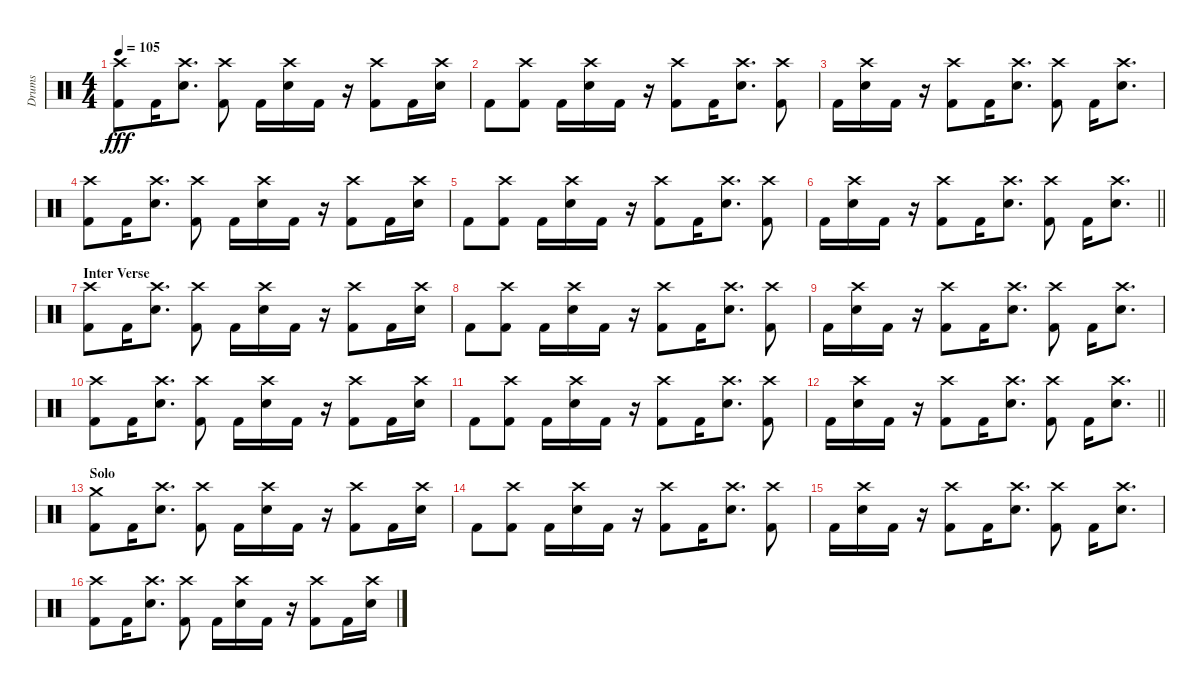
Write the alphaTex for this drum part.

\track ("Drums" "Drums") {instrument percussion}
\staff {score}
\articulation defaults
\ts (4 4)
\tempo 105
\clef neutral
\ks c
("Crash high (hit)" "Kick (hit) 2").8{dy fff} "Kick (hit) 2".16 ("Crash high (hit)" "Electric Snare (hit)").8{d} ("Crash high (hit)" "Kick (hit) 2").8 "Kick (hit) 2".16 ("Crash high (hit)" "Electric Snare (hit)").16 "Kick (hit) 2".16 r.16 ("Crash high (hit)" "Kick (hit) 2").8 "Kick (hit) 2".16 ("Crash high (hit)" "Electric Snare (hit)").16 |
"Kick (hit) 2".8 ("Crash high (hit)" "Kick (hit) 2").8 "Kick (hit) 2".16 ("Crash high (hit)" "Electric Snare (hit)").16 "Kick (hit) 2".16 r.16 ("Crash high (hit)" "Kick (hit) 2").8 "Kick (hit) 2".16 ("Crash high (hit)" "Electric Snare (hit)").8{d} ("Crash high (hit)" "Kick (hit) 2").8 |
"Kick (hit) 2".16 ("Crash high (hit)" "Electric Snare (hit)").16 "Kick (hit) 2".16 r.16 ("Crash high (hit)" "Kick (hit) 2").8 "Kick (hit) 2".16 ("Crash high (hit)" "Electric Snare (hit)").8{d} ("Crash high (hit)" "Kick (hit) 2").8 "Kick (hit) 2".16 ("Crash high (hit)" "Electric Snare (hit)").8{d} |
("Crash high (hit)" "Kick (hit) 2").8 "Kick (hit) 2".16 ("Crash high (hit)" "Electric Snare (hit)").8{d} ("Crash high (hit)" "Kick (hit) 2").8 "Kick (hit) 2".16 ("Crash high (hit)" "Electric Snare (hit)").16 "Kick (hit) 2".16 r.16 ("Crash high (hit)" "Kick (hit) 2").8 "Kick (hit) 2".16 ("Crash high (hit)" "Electric Snare (hit)").16 |
"Kick (hit) 2".8 ("Crash high (hit)" "Kick (hit) 2").8 "Kick (hit) 2".16 ("Crash high (hit)" "Electric Snare (hit)").16 "Kick (hit) 2".16 r.16 ("Crash high (hit)" "Kick (hit) 2").8 "Kick (hit) 2".16 ("Crash high (hit)" "Electric Snare (hit)").8{d} ("Crash high (hit)" "Kick (hit) 2").8 |
\barLineRight lightlight "Kick (hit) 2".16
("Crash high (hit)" "Electric Snare (hit)").16 "Kick (hit) 2".16 r.16 ("Crash high (hit)" "Kick (hit) 2").8 "Kick (hit) 2".16 ("Crash high (hit)" "Electric Snare (hit)").8{d} ("Crash high (hit)" "Kick (hit) 2").8 "Kick (hit) 2".16 ("Crash high (hit)" "Electric Snare (hit)").8{d} |
\section ("" "Inter Verse")
("Crash high (hit)" "Kick (hit) 2").8 "Kick (hit) 2".16 ("Crash high (hit)" "Electric Snare (hit)").8{d} ("Crash high (hit)" "Kick (hit) 2").8 "Kick (hit) 2".16 ("Crash high (hit)" "Electric Snare (hit)").16 "Kick (hit) 2".16 r.16 ("Crash high (hit)" "Kick (hit) 2").8 "Kick (hit) 2".16 ("Crash high (hit)" "Electric Snare (hit)").16 |
"Kick (hit) 2".8 ("Crash high (hit)" "Kick (hit) 2").8 "Kick (hit) 2".16 ("Crash high (hit)" "Electric Snare (hit)").16 "Kick (hit) 2".16 r.16 ("Crash high (hit)" "Kick (hit) 2").8 "Kick (hit) 2".16 ("Crash high (hit)" "Electric Snare (hit)").8{d} ("Crash high (hit)" "Kick (hit) 2").8 |
"Kick (hit) 2".16 ("Crash high (hit)" "Electric Snare (hit)").16 "Kick (hit) 2".16 r.16 ("Crash high (hit)" "Kick (hit) 2").8 "Kick (hit) 2".16 ("Crash high (hit)" "Electric Snare (hit)").8{d} ("Crash high (hit)" "Kick (hit) 2").8 "Kick (hit) 2".16 ("Crash high (hit)" "Electric Snare (hit)").8{d} |
("Crash high (hit)" "Kick (hit) 2").8 "Kick (hit) 2".16 ("Crash high (hit)" "Electric Snare (hit)").8{d} ("Crash high (hit)" "Kick (hit) 2").8 "Kick (hit) 2".16 ("Crash high (hit)" "Electric Snare (hit)").16 "Kick (hit) 2".16 r.16 ("Crash high (hit)" "Kick (hit) 2").8 "Kick (hit) 2".16 ("Crash high (hit)" "Electric Snare (hit)").16 |
"Kick (hit) 2".8 ("Crash high (hit)" "Kick (hit) 2").8 "Kick (hit) 2".16 ("Crash high (hit)" "Electric Snare (hit)").16 "Kick (hit) 2".16 r.16 ("Crash high (hit)" "Kick (hit) 2").8 "Kick (hit) 2".16 ("Crash high (hit)" "Electric Snare (hit)").8{d} ("Crash high (hit)" "Kick (hit) 2").8 |
\barLineRight lightlight "Kick (hit) 2".16
("Crash high (hit)" "Electric Snare (hit)").16 "Kick (hit) 2".16 r.16 ("Crash high (hit)" "Kick (hit) 2").8 "Kick (hit) 2".16 ("Crash high (hit)" "Electric Snare (hit)").8{d} ("Crash high (hit)" "Kick (hit) 2").8 "Kick (hit) 2".16 ("Crash high (hit)" "Electric Snare (hit)").8{d} |
\section ("" "Solo")
("Crash medium (hit)" "Kick (hit) 2").8 "Kick (hit) 2".16 ("Crash high (hit)" "Electric Snare (hit)").8{d} ("Crash high (hit)" "Kick (hit) 2").8 "Kick (hit) 2".16 ("Crash high (hit)" "Electric Snare (hit)").16 "Kick (hit) 2".16 r.16 ("Crash high (hit)" "Kick (hit) 2").8 "Kick (hit) 2".16 ("Crash high (hit)" "Electric Snare (hit)").16 |
"Kick (hit) 2".8 ("Crash high (hit)" "Kick (hit) 2").8 "Kick (hit) 2".16 ("Crash high (hit)" "Electric Snare (hit)").16 "Kick (hit) 2".16 r.16 ("Crash high (hit)" "Kick (hit) 2").8 "Kick (hit) 2".16 ("Crash high (hit)" "Electric Snare (hit)").8{d} ("Crash high (hit)" "Kick (hit) 2").8 |
"Kick (hit) 2".16 ("Crash high (hit)" "Electric Snare (hit)").16 "Kick (hit) 2".16 r.16 ("Crash high (hit)" "Kick (hit) 2").8 "Kick (hit) 2".16 ("Crash high (hit)" "Electric Snare (hit)").8{d} ("Crash high (hit)" "Kick (hit) 2").8 "Kick (hit) 2".16 ("Crash high (hit)" "Electric Snare (hit)").8{d} |
("Crash high (hit)" "Kick (hit) 2").8 "Kick (hit) 2".16 ("Crash high (hit)" "Electric Snare (hit)").8{d} ("Crash high (hit)" "Kick (hit) 2").8 "Kick (hit) 2".16 ("Crash high (hit)" "Electric Snare (hit)").16 "Kick (hit) 2".16 r.16 ("Crash high (hit)" "Kick (hit) 2").8 "Kick (hit) 2".16 ("Crash high (hit)" "Electric Snare (hit)").16
